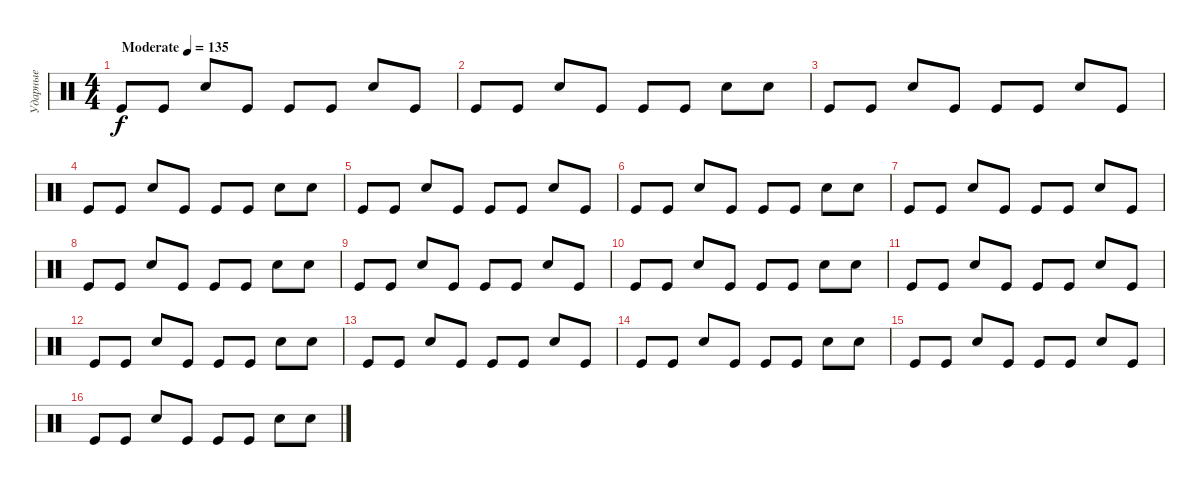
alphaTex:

\track ("Ударные" "Ударные") {instrument percussion}
\staff {score}
\articulation defaults
\ts (4 4)
\tempo (135 "Moderate")
\clef neutral
\ks c "Kick (hit)".8{dy f} "Kick (hit)".8 "Snare (hit) 2".8 "Kick (hit)".8 "Kick (hit)".8 "Kick (hit)".8 "Snare (hit) 2".8 "Kick (hit)".8
|
"Kick (hit)".8 "Kick (hit)".8 "Snare (hit) 2".8 "Kick (hit)".8 "Kick (hit)".8 "Kick (hit)".8 "Snare (hit) 2".8 "Snare (hit) 2".8 |
"Kick (hit)".8 "Kick (hit)".8 "Snare (hit) 2".8 "Kick (hit)".8 "Kick (hit)".8 "Kick (hit)".8 "Snare (hit) 2".8 "Kick (hit)".8 |
"Kick (hit)".8 "Kick (hit)".8 "Snare (hit) 2".8 "Kick (hit)".8 "Kick (hit)".8 "Kick (hit)".8 "Snare (hit) 2".8 "Snare (hit) 2".8 |
"Kick (hit)".8 "Kick (hit)".8 "Snare (hit) 2".8 "Kick (hit)".8 "Kick (hit)".8 "Kick (hit)".8 "Snare (hit) 2".8 "Kick (hit)".8 |
"Kick (hit)".8 "Kick (hit)".8 "Snare (hit) 2".8 "Kick (hit)".8 "Kick (hit)".8 "Kick (hit)".8 "Snare (hit) 2".8 "Snare (hit) 2".8 |
"Kick (hit)".8 "Kick (hit)".8 "Snare (hit) 2".8 "Kick (hit)".8 "Kick (hit)".8 "Kick (hit)".8 "Snare (hit) 2".8 "Kick (hit)".8 |
"Kick (hit)".8 "Kick (hit)".8 "Snare (hit) 2".8 "Kick (hit)".8 "Kick (hit)".8 "Kick (hit)".8 "Snare (hit) 2".8 "Snare (hit) 2".8 |
"Kick (hit)".8 "Kick (hit)".8 "Snare (hit) 2".8 "Kick (hit)".8 "Kick (hit)".8 "Kick (hit)".8 "Snare (hit) 2".8 "Kick (hit)".8 |
"Kick (hit)".8 "Kick (hit)".8 "Snare (hit) 2".8 "Kick (hit)".8 "Kick (hit)".8 "Kick (hit)".8 "Snare (hit) 2".8 "Snare (hit) 2".8 |
"Kick (hit)".8 "Kick (hit)".8 "Snare (hit) 2".8 "Kick (hit)".8 "Kick (hit)".8 "Kick (hit)".8 "Snare (hit) 2".8 "Kick (hit)".8 |
"Kick (hit)".8 "Kick (hit)".8 "Snare (hit) 2".8 "Kick (hit)".8 "Kick (hit)".8 "Kick (hit)".8 "Snare (hit) 2".8 "Snare (hit) 2".8 |
"Kick (hit)".8 "Kick (hit)".8 "Snare (hit) 2".8 "Kick (hit)".8 "Kick (hit)".8 "Kick (hit)".8 "Snare (hit) 2".8 "Kick (hit)".8 |
"Kick (hit)".8 "Kick (hit)".8 "Snare (hit) 2".8 "Kick (hit)".8 "Kick (hit)".8 "Kick (hit)".8 "Snare (hit) 2".8 "Snare (hit) 2".8 |
"Kick (hit)".8 "Kick (hit)".8 "Snare (hit) 2".8 "Kick (hit)".8 "Kick (hit)".8 "Kick (hit)".8 "Snare (hit) 2".8 "Kick (hit)".8 |
"Kick (hit)".8 "Kick (hit)".8 "Snare (hit) 2".8 "Kick (hit)".8 "Kick (hit)".8 "Kick (hit)".8 "Snare (hit) 2".8 "Snare (hit) 2".8
